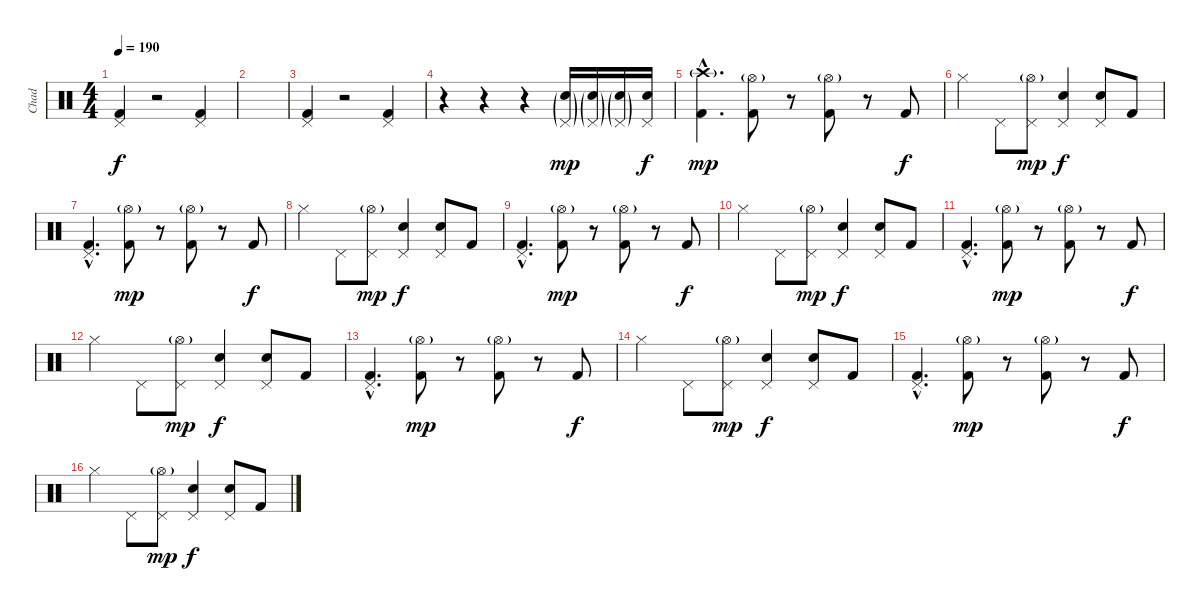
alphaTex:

\track ("Chad" "Chad") {instrument percussion}
\staff {score}
\articulation defaults
\ts (4 4)
\tempo 190
\clef neutral
\ks c
("Kick (hit) 2" "Pedal Hi-Hat (hit)").4{dy f} r.2 ("Kick (hit) 2" "Pedal Hi-Hat (hit)").4 |
|
("Kick (hit) 2" "Pedal Hi-Hat (hit)").4 r.2 ("Kick (hit) 2" "Pedal Hi-Hat (hit)").4 |
r.4 r.4 r.4 ("Electric Snare (hit)"{g} "Pedal Hi-Hat (hit)"{g}).16{dy mp} ("Electric Snare (hit)"{g} "Pedal Hi-Hat (hit)"{g}).16 ("Electric Snare (hit)"{g} "Pedal Hi-Hat (hit)"{g}).16 ("Electric Snare (hit)" "Pedal Hi-Hat (hit)").16{dy f} |
("Kick (hit) 2"{hac} "Crash high (hit)"{g hac}).4{d dy mp} ("Kick (hit) 2" "Hi-Hat (open)"{g}).8 r.8 ("Kick (hit) 2" "Hi-Hat (open)"{g}).8 r.8 "Kick (hit) 2".8{dy f} |
"Hi-Hat (closed)".4 "Pedal Hi-Hat (hit)".8 ("Pedal Hi-Hat (hit)" "Hi-Hat (open)"{g}).8{dy mp} ("Electric Snare (hit)" "Pedal Hi-Hat (hit)").4{dy f} ("Electric Snare (hit)" "Pedal Hi-Hat (hit)").8 "Kick (hit) 2".8 |
("Kick (hit) 2"{hac} "Pedal Hi-Hat (hit)"{hac}).4{d} ("Kick (hit) 2" "Hi-Hat (open)"{g}).8{dy mp} r.8 ("Kick (hit) 2" "Hi-Hat (open)"{g}).8 r.8 "Kick (hit) 2".8{dy f} |
"Hi-Hat (closed)".4 "Pedal Hi-Hat (hit)".8 ("Pedal Hi-Hat (hit)" "Hi-Hat (open)"{g}).8{dy mp} ("Electric Snare (hit)" "Pedal Hi-Hat (hit)").4{dy f} ("Electric Snare (hit)" "Pedal Hi-Hat (hit)").8 "Kick (hit) 2".8 |
("Kick (hit) 2"{hac} "Pedal Hi-Hat (hit)"{hac}).4{d} ("Kick (hit) 2" "Hi-Hat (open)"{g}).8{dy mp} r.8 ("Kick (hit) 2" "Hi-Hat (open)"{g}).8 r.8 "Kick (hit) 2".8{dy f} |
"Hi-Hat (closed)".4 "Pedal Hi-Hat (hit)".8 ("Pedal Hi-Hat (hit)" "Hi-Hat (open)"{g}).8{dy mp} ("Electric Snare (hit)" "Pedal Hi-Hat (hit)").4{dy f} ("Electric Snare (hit)" "Pedal Hi-Hat (hit)").8 "Kick (hit) 2".8 |
("Kick (hit) 2"{hac} "Pedal Hi-Hat (hit)"{hac}).4{d} ("Kick (hit) 2" "Hi-Hat (open)"{g}).8{dy mp} r.8 ("Kick (hit) 2" "Hi-Hat (open)"{g}).8 r.8 "Kick (hit) 2".8{dy f} |
"Hi-Hat (closed)".4 "Pedal Hi-Hat (hit)".8 ("Pedal Hi-Hat (hit)" "Hi-Hat (open)"{g}).8{dy mp} ("Electric Snare (hit)" "Pedal Hi-Hat (hit)").4{dy f} ("Electric Snare (hit)" "Pedal Hi-Hat (hit)").8 "Kick (hit) 2".8 |
("Kick (hit) 2"{hac} "Pedal Hi-Hat (hit)"{hac}).4{d} ("Kick (hit) 2" "Hi-Hat (open)"{g}).8{dy mp} r.8 ("Kick (hit) 2" "Hi-Hat (open)"{g}).8 r.8 "Kick (hit) 2".8{dy f} |
"Hi-Hat (closed)".4 "Pedal Hi-Hat (hit)".8 ("Pedal Hi-Hat (hit)" "Hi-Hat (open)"{g}).8{dy mp} ("Electric Snare (hit)" "Pedal Hi-Hat (hit)").4{dy f} ("Electric Snare (hit)" "Pedal Hi-Hat (hit)").8 "Kick (hit) 2".8 |
("Kick (hit) 2"{hac} "Pedal Hi-Hat (hit)"{hac}).4{d} ("Kick (hit) 2" "Hi-Hat (open)"{g}).8{dy mp} r.8 ("Kick (hit) 2" "Hi-Hat (open)"{g}).8 r.8 "Kick (hit) 2".8{dy f} |
"Hi-Hat (closed)".4 "Pedal Hi-Hat (hit)".8 ("Pedal Hi-Hat (hit)" "Hi-Hat (open)"{g}).8{dy mp} ("Electric Snare (hit)" "Pedal Hi-Hat (hit)").4{dy f} ("Electric Snare (hit)" "Pedal Hi-Hat (hit)").8 "Kick (hit) 2".8
